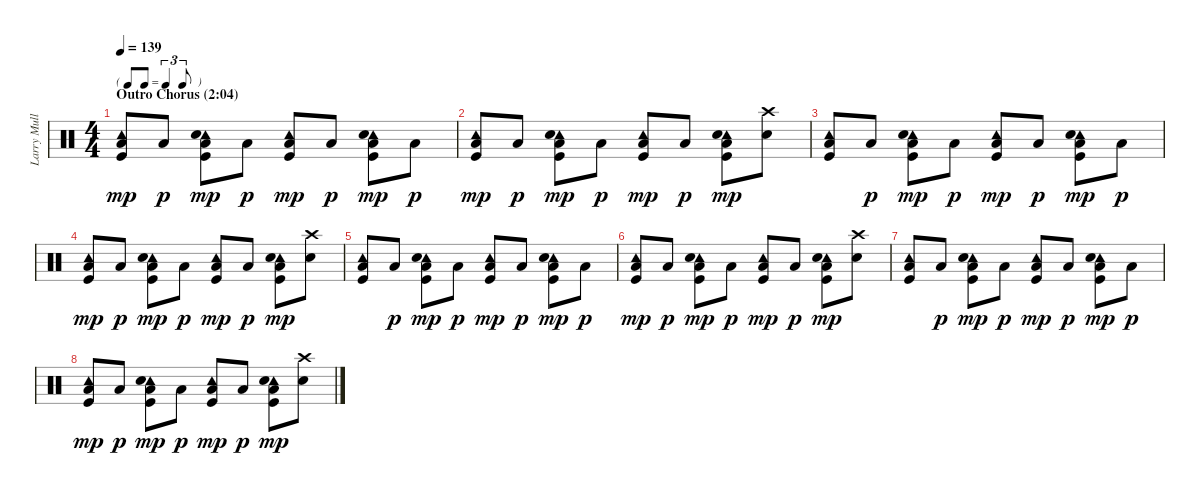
\track ("Larry Mullen Jr" "Larry Mull") {instrument percussion}
\staff {score}
\articulation defaults
\ts (4 4)
\tf triplet8th
\section ("" "Outro Chorus (2:04)")
\tempo 139
\clef neutral
\ks c
("Tambourine (hit)" "Low Floor Tom (hit)" "Kick (hit)").8{dy mp volume 8} "Low Floor Tom (hit)".8{dy p} ("Tambourine (hit)" "Electric Snare (hit)" "Low Floor Tom (hit)" "Kick (hit)").8{dy mp} "Low Floor Tom (hit)".8{dy p} ("Tambourine (hit)" "Low Floor Tom (hit)" "Kick (hit)").8{dy mp} "Low Floor Tom (hit)".8{dy p} ("Tambourine (hit)" "Electric Snare (hit)" "Low Floor Tom (hit)" "Kick (hit)").8{dy mp} "Low Floor Tom (hit)".8{dy p} |
("Tambourine (hit)" "Low Floor Tom (hit)" "Kick (hit)").8{dy mp} "Low Floor Tom (hit)".8{dy p} ("Tambourine (hit)" "Electric Snare (hit)" "Low Floor Tom (hit)" "Kick (hit)").8{dy mp} "Low Floor Tom (hit)".8{dy p} ("Tambourine (hit)" "Low Floor Tom (hit)" "Kick (hit)").8{dy mp} "Low Floor Tom (hit)".8{dy p} ("Tambourine (hit)" "Electric Snare (hit)" "Low Floor Tom (hit)" "Kick (hit)").8{dy mp} ("Crash high (hit)" "Electric Snare (hit)").8 |
("Tambourine (hit)" "Low Floor Tom (hit)" "Kick (hit)").8{volume 5} "Low Floor Tom (hit)".8{dy p} ("Tambourine (hit)" "Electric Snare (hit)" "Low Floor Tom (hit)" "Kick (hit)").8{dy mp} "Low Floor Tom (hit)".8{dy p} ("Tambourine (hit)" "Low Floor Tom (hit)" "Kick (hit)").8{dy mp} "Low Floor Tom (hit)".8{dy p} ("Tambourine (hit)" "Electric Snare (hit)" "Low Floor Tom (hit)" "Kick (hit)").8{dy mp} "Low Floor Tom (hit)".8{dy p} |
("Tambourine (hit)" "Low Floor Tom (hit)" "Kick (hit)").8{dy mp} "Low Floor Tom (hit)".8{dy p} ("Tambourine (hit)" "Electric Snare (hit)" "Low Floor Tom (hit)" "Kick (hit)").8{dy mp} "Low Floor Tom (hit)".8{dy p} ("Tambourine (hit)" "Low Floor Tom (hit)" "Kick (hit)").8{dy mp} "Low Floor Tom (hit)".8{dy p} ("Tambourine (hit)" "Electric Snare (hit)" "Low Floor Tom (hit)" "Kick (hit)").8{dy mp} ("Crash high (hit)" "Electric Snare (hit)").8 |
("Tambourine (hit)" "Low Floor Tom (hit)" "Kick (hit)").8{volume 5} "Low Floor Tom (hit)".8{dy p} ("Tambourine (hit)" "Electric Snare (hit)" "Low Floor Tom (hit)" "Kick (hit)").8{dy mp} "Low Floor Tom (hit)".8{dy p} ("Tambourine (hit)" "Low Floor Tom (hit)" "Kick (hit)").8{dy mp} "Low Floor Tom (hit)".8{dy p} ("Tambourine (hit)" "Electric Snare (hit)" "Low Floor Tom (hit)" "Kick (hit)").8{dy mp} "Low Floor Tom (hit)".8{dy p} |
("Tambourine (hit)" "Low Floor Tom (hit)" "Kick (hit)").8{dy mp} "Low Floor Tom (hit)".8{dy p} ("Tambourine (hit)" "Electric Snare (hit)" "Low Floor Tom (hit)" "Kick (hit)").8{dy mp} "Low Floor Tom (hit)".8{dy p} ("Tambourine (hit)" "Low Floor Tom (hit)" "Kick (hit)").8{dy mp} "Low Floor Tom (hit)".8{dy p} ("Tambourine (hit)" "Electric Snare (hit)" "Low Floor Tom (hit)" "Kick (hit)").8{dy mp} ("Crash high (hit)" "Electric Snare (hit)").8 |
("Tambourine (hit)" "Low Floor Tom (hit)" "Kick (hit)").8{volume 0} "Low Floor Tom (hit)".8{dy p} ("Tambourine (hit)" "Electric Snare (hit)" "Low Floor Tom (hit)" "Kick (hit)").8{dy mp} "Low Floor Tom (hit)".8{dy p} ("Tambourine (hit)" "Low Floor Tom (hit)" "Kick (hit)").8{dy mp} "Low Floor Tom (hit)".8{dy p} ("Tambourine (hit)" "Electric Snare (hit)" "Low Floor Tom (hit)" "Kick (hit)").8{dy mp} "Low Floor Tom (hit)".8{dy p} |
("Tambourine (hit)" "Low Floor Tom (hit)" "Kick (hit)").8{dy mp} "Low Floor Tom (hit)".8{dy p} ("Tambourine (hit)" "Electric Snare (hit)" "Low Floor Tom (hit)" "Kick (hit)").8{dy mp} "Low Floor Tom (hit)".8{dy p} ("Tambourine (hit)" "Low Floor Tom (hit)" "Kick (hit)").8{dy mp} "Low Floor Tom (hit)".8{dy p} ("Tambourine (hit)" "Electric Snare (hit)" "Low Floor Tom (hit)" "Kick (hit)").8{dy mp} ("Crash high (hit)" "Electric Snare (hit)").8
